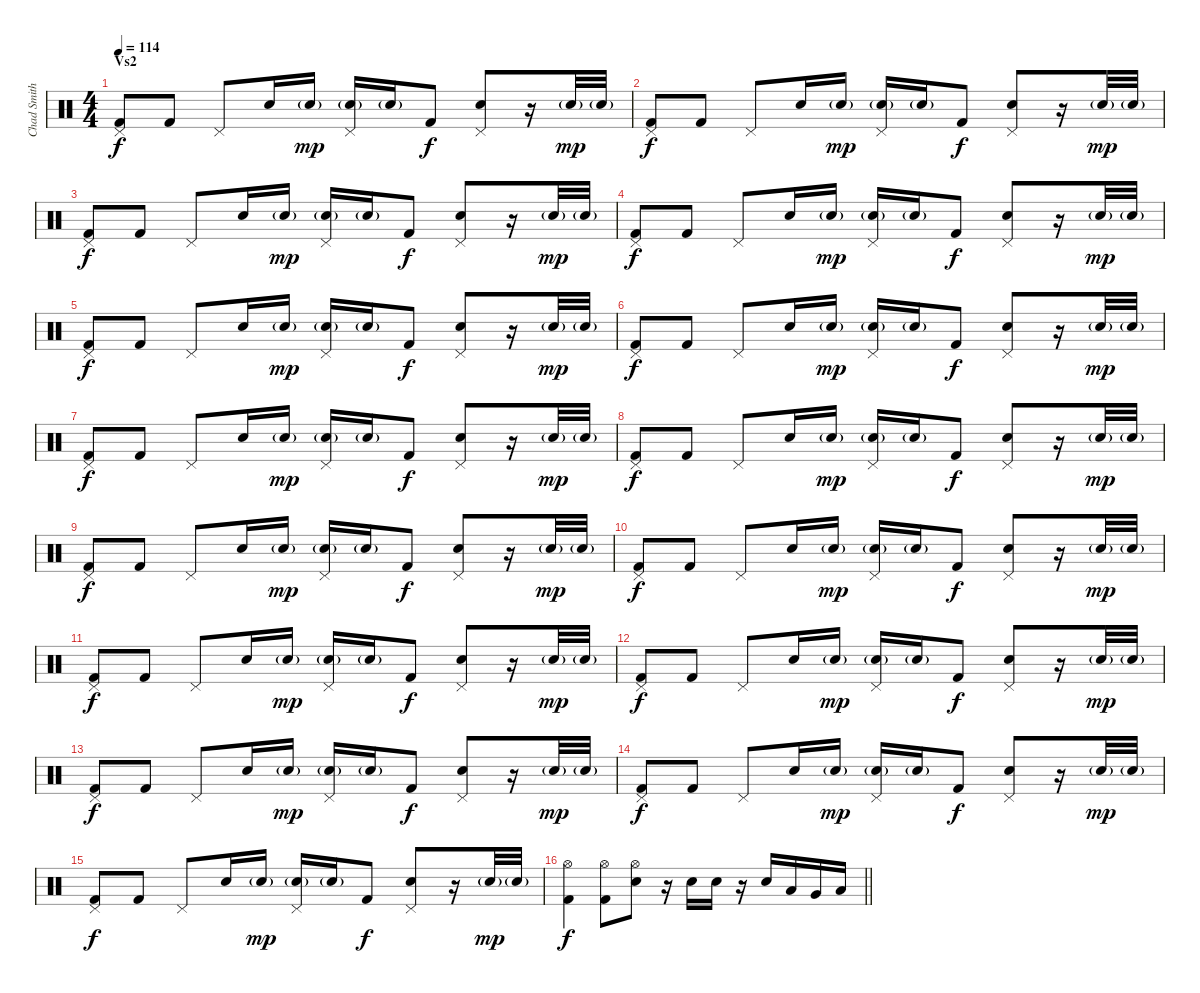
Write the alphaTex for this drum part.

\track ("Chad Smith" "Chad Smith") {instrument percussion}
\staff {score}
\articulation defaults
\ts (4 4)
\section ("" "Vs2")
\tempo 114
\clef neutral
\ks c
("Pedal Hi-Hat (hit)" "Kick (hit) 2").8{dy f} "Kick (hit) 2".8 "Pedal Hi-Hat (hit)".8 "Snare (hit) 2".16 "Snare (hit) 2"{g}.16{dy mp} ("Pedal Hi-Hat (hit)" "Snare (hit) 2"{g}).16 "Snare (hit) 2"{g}.16 "Kick (hit) 2".8{dy f} ("Pedal Hi-Hat (hit)" "Snare (hit) 2").8 r.16 "Snare (hit) 2"{g}.32{dy mp} "Snare (hit) 2"{g}.32 |
("Pedal Hi-Hat (hit)" "Kick (hit) 2").8{dy f} "Kick (hit) 2".8 "Pedal Hi-Hat (hit)".8 "Snare (hit) 2".16 "Snare (hit) 2"{g}.16{dy mp} ("Pedal Hi-Hat (hit)" "Snare (hit) 2"{g}).16 "Snare (hit) 2"{g}.16 "Kick (hit) 2".8{dy f} ("Pedal Hi-Hat (hit)" "Snare (hit) 2").8 r.16 "Snare (hit) 2"{g}.32{dy mp} "Snare (hit) 2"{g}.32 |
("Pedal Hi-Hat (hit)" "Kick (hit) 2").8{dy f} "Kick (hit) 2".8 "Pedal Hi-Hat (hit)".8 "Snare (hit) 2".16 "Snare (hit) 2"{g}.16{dy mp} ("Pedal Hi-Hat (hit)" "Snare (hit) 2"{g}).16 "Snare (hit) 2"{g}.16 "Kick (hit) 2".8{dy f} ("Pedal Hi-Hat (hit)" "Snare (hit) 2").8 r.16 "Snare (hit) 2"{g}.32{dy mp} "Snare (hit) 2"{g}.32 |
("Pedal Hi-Hat (hit)" "Kick (hit) 2").8{dy f} "Kick (hit) 2".8 "Pedal Hi-Hat (hit)".8 "Snare (hit) 2".16 "Snare (hit) 2"{g}.16{dy mp} ("Pedal Hi-Hat (hit)" "Snare (hit) 2"{g}).16 "Snare (hit) 2"{g}.16 "Kick (hit) 2".8{dy f} ("Pedal Hi-Hat (hit)" "Snare (hit) 2").8 r.16 "Snare (hit) 2"{g}.32{dy mp} "Snare (hit) 2"{g}.32 |
("Pedal Hi-Hat (hit)" "Kick (hit) 2").8{dy f} "Kick (hit) 2".8 "Pedal Hi-Hat (hit)".8 "Snare (hit) 2".16 "Snare (hit) 2"{g}.16{dy mp} ("Pedal Hi-Hat (hit)" "Snare (hit) 2"{g}).16 "Snare (hit) 2"{g}.16 "Kick (hit) 2".8{dy f} ("Pedal Hi-Hat (hit)" "Snare (hit) 2").8 r.16 "Snare (hit) 2"{g}.32{dy mp} "Snare (hit) 2"{g}.32 |
("Pedal Hi-Hat (hit)" "Kick (hit) 2").8{dy f} "Kick (hit) 2".8 "Pedal Hi-Hat (hit)".8 "Snare (hit) 2".16 "Snare (hit) 2"{g}.16{dy mp} ("Pedal Hi-Hat (hit)" "Snare (hit) 2"{g}).16 "Snare (hit) 2"{g}.16 "Kick (hit) 2".8{dy f} ("Pedal Hi-Hat (hit)" "Snare (hit) 2").8 r.16 "Snare (hit) 2"{g}.32{dy mp} "Snare (hit) 2"{g}.32 |
("Pedal Hi-Hat (hit)" "Kick (hit) 2").8{dy f} "Kick (hit) 2".8 "Pedal Hi-Hat (hit)".8 "Snare (hit) 2".16 "Snare (hit) 2"{g}.16{dy mp} ("Pedal Hi-Hat (hit)" "Snare (hit) 2"{g}).16 "Snare (hit) 2"{g}.16 "Kick (hit) 2".8{dy f} ("Pedal Hi-Hat (hit)" "Snare (hit) 2").8 r.16 "Snare (hit) 2"{g}.32{dy mp} "Snare (hit) 2"{g}.32 |
("Pedal Hi-Hat (hit)" "Kick (hit) 2").8{dy f} "Kick (hit) 2".8 "Pedal Hi-Hat (hit)".8 "Snare (hit) 2".16 "Snare (hit) 2"{g}.16{dy mp} ("Pedal Hi-Hat (hit)" "Snare (hit) 2"{g}).16 "Snare (hit) 2"{g}.16 "Kick (hit) 2".8{dy f} ("Pedal Hi-Hat (hit)" "Snare (hit) 2").8 r.16 "Snare (hit) 2"{g}.32{dy mp} "Snare (hit) 2"{g}.32 |
("Pedal Hi-Hat (hit)" "Kick (hit) 2").8{dy f} "Kick (hit) 2".8 "Pedal Hi-Hat (hit)".8 "Snare (hit) 2".16 "Snare (hit) 2"{g}.16{dy mp} ("Pedal Hi-Hat (hit)" "Snare (hit) 2"{g}).16 "Snare (hit) 2"{g}.16 "Kick (hit) 2".8{dy f} ("Pedal Hi-Hat (hit)" "Snare (hit) 2").8 r.16 "Snare (hit) 2"{g}.32{dy mp} "Snare (hit) 2"{g}.32 |
("Pedal Hi-Hat (hit)" "Kick (hit) 2").8{dy f} "Kick (hit) 2".8 "Pedal Hi-Hat (hit)".8 "Snare (hit) 2".16 "Snare (hit) 2"{g}.16{dy mp} ("Pedal Hi-Hat (hit)" "Snare (hit) 2"{g}).16 "Snare (hit) 2"{g}.16 "Kick (hit) 2".8{dy f} ("Pedal Hi-Hat (hit)" "Snare (hit) 2").8 r.16 "Snare (hit) 2"{g}.32{dy mp} "Snare (hit) 2"{g}.32 |
("Pedal Hi-Hat (hit)" "Kick (hit) 2").8{dy f} "Kick (hit) 2".8 "Pedal Hi-Hat (hit)".8 "Snare (hit) 2".16 "Snare (hit) 2"{g}.16{dy mp} ("Pedal Hi-Hat (hit)" "Snare (hit) 2"{g}).16 "Snare (hit) 2"{g}.16 "Kick (hit) 2".8{dy f} ("Pedal Hi-Hat (hit)" "Snare (hit) 2").8 r.16 "Snare (hit) 2"{g}.32{dy mp} "Snare (hit) 2"{g}.32 |
("Pedal Hi-Hat (hit)" "Kick (hit) 2").8{dy f} "Kick (hit) 2".8 "Pedal Hi-Hat (hit)".8 "Snare (hit) 2".16 "Snare (hit) 2"{g}.16{dy mp} ("Pedal Hi-Hat (hit)" "Snare (hit) 2"{g}).16 "Snare (hit) 2"{g}.16 "Kick (hit) 2".8{dy f} ("Pedal Hi-Hat (hit)" "Snare (hit) 2").8 r.16 "Snare (hit) 2"{g}.32{dy mp} "Snare (hit) 2"{g}.32 |
("Pedal Hi-Hat (hit)" "Kick (hit) 2").8{dy f} "Kick (hit) 2".8 "Pedal Hi-Hat (hit)".8 "Snare (hit) 2".16 "Snare (hit) 2"{g}.16{dy mp} ("Pedal Hi-Hat (hit)" "Snare (hit) 2"{g}).16 "Snare (hit) 2"{g}.16 "Kick (hit) 2".8{dy f} ("Pedal Hi-Hat (hit)" "Snare (hit) 2").8 r.16 "Snare (hit) 2"{g}.32{dy mp} "Snare (hit) 2"{g}.32 |
("Pedal Hi-Hat (hit)" "Kick (hit) 2").8{dy f} "Kick (hit) 2".8 "Pedal Hi-Hat (hit)".8 "Snare (hit) 2".16 "Snare (hit) 2"{g}.16{dy mp} ("Pedal Hi-Hat (hit)" "Snare (hit) 2"{g}).16 "Snare (hit) 2"{g}.16 "Kick (hit) 2".8{dy f} ("Pedal Hi-Hat (hit)" "Snare (hit) 2").8 r.16 "Snare (hit) 2"{g}.32{dy mp} "Snare (hit) 2"{g}.32 |
("Pedal Hi-Hat (hit)" "Kick (hit) 2").8{dy f} "Kick (hit) 2".8 "Pedal Hi-Hat (hit)".8 "Snare (hit) 2".16 "Snare (hit) 2"{g}.16{dy mp} ("Pedal Hi-Hat (hit)" "Snare (hit) 2"{g}).16 "Snare (hit) 2"{g}.16 "Kick (hit) 2".8{dy f} ("Pedal Hi-Hat (hit)" "Snare (hit) 2").8 r.16 "Snare (hit) 2"{g}.32{dy mp} "Snare (hit) 2"{g}.32 |
\barLineRight lightlight
("Hi-Hat (open)" "Kick (hit) 2").4{dy f} ("Hi-Hat (open)" "Kick (hit) 2").8 ("Hi-Hat (open)" "Snare (hit) 2").8 r.16 "Snare (hit) 2".16 "Snare (hit) 2".16 r.16 "Snare (hit) 2".16 "Low Tom (hit)".16 "Very Low Tom (hit)".16 "Low Floor Tom (hit)".16
